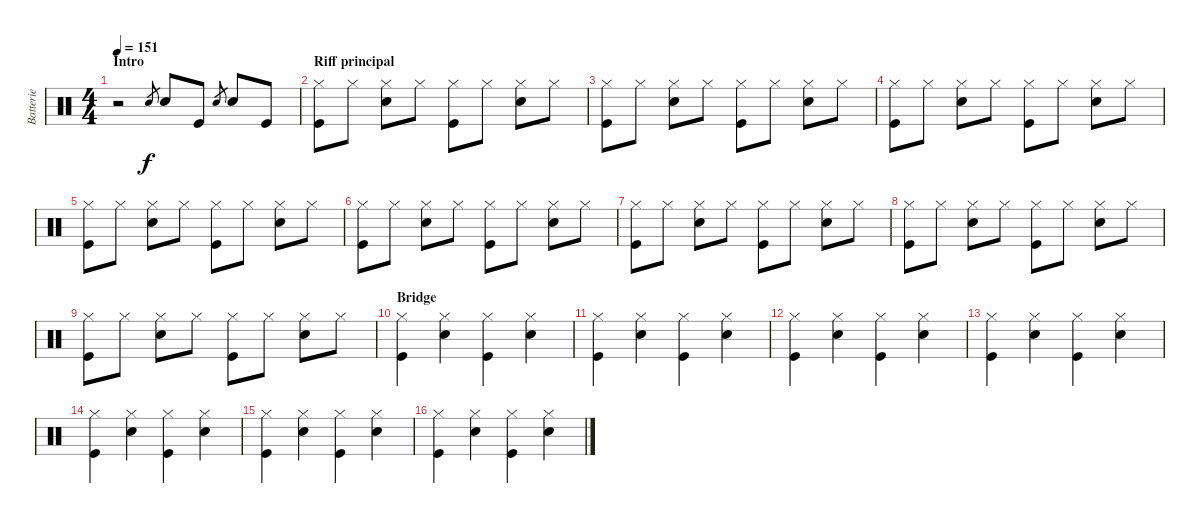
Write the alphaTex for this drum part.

\track ("Batterie" "Batterie") {instrument percussion}
\staff {score}
\articulation defaults
\ts (4 4)
\section ("" "Intro")
\tempo 151
\clef neutral
\ks c
r.2{dy f} "Electric Snare (hit)".8{gr} "Electric Snare (hit)".8 "Kick (hit)".8 "Electric Snare (hit)".8{gr} "Electric Snare (hit)".8 "Kick (hit)".8 |
\section ("" "Riff principal")
("Hi-Hat (closed)" "Kick (hit)").8 "Hi-Hat (closed)".8 ("Hi-Hat (closed)" "Electric Snare (hit)").8 "Hi-Hat (closed)".8 ("Hi-Hat (closed)" "Kick (hit)").8 "Hi-Hat (closed)".8 ("Hi-Hat (closed)" "Electric Snare (hit)").8 "Hi-Hat (closed)".8 |
("Hi-Hat (closed)" "Kick (hit)").8 "Hi-Hat (closed)".8 ("Hi-Hat (closed)" "Electric Snare (hit)").8 "Hi-Hat (closed)".8 ("Hi-Hat (closed)" "Kick (hit)").8 "Hi-Hat (closed)".8 ("Hi-Hat (closed)" "Electric Snare (hit)").8 "Hi-Hat (closed)".8 |
("Hi-Hat (closed)" "Kick (hit)").8 "Hi-Hat (closed)".8 ("Hi-Hat (closed)" "Electric Snare (hit)").8 "Hi-Hat (closed)".8 ("Hi-Hat (closed)" "Kick (hit)").8 "Hi-Hat (closed)".8 ("Hi-Hat (closed)" "Electric Snare (hit)").8 "Hi-Hat (closed)".8 |
("Hi-Hat (closed)" "Kick (hit)").8 "Hi-Hat (closed)".8 ("Hi-Hat (closed)" "Electric Snare (hit)").8 "Hi-Hat (closed)".8 ("Hi-Hat (closed)" "Kick (hit)").8 "Hi-Hat (closed)".8 ("Hi-Hat (closed)" "Electric Snare (hit)").8 "Hi-Hat (closed)".8 |
("Hi-Hat (closed)" "Kick (hit)").8 "Hi-Hat (closed)".8 ("Hi-Hat (closed)" "Electric Snare (hit)").8 "Hi-Hat (closed)".8 ("Hi-Hat (closed)" "Kick (hit)").8 "Hi-Hat (closed)".8 ("Hi-Hat (closed)" "Electric Snare (hit)").8 "Hi-Hat (closed)".8 |
("Hi-Hat (closed)" "Kick (hit)").8 "Hi-Hat (closed)".8 ("Hi-Hat (closed)" "Electric Snare (hit)").8 "Hi-Hat (closed)".8 ("Hi-Hat (closed)" "Kick (hit)").8 "Hi-Hat (closed)".8 ("Hi-Hat (closed)" "Electric Snare (hit)").8 "Hi-Hat (closed)".8 |
("Hi-Hat (closed)" "Kick (hit)").8 "Hi-Hat (closed)".8 ("Hi-Hat (closed)" "Electric Snare (hit)").8 "Hi-Hat (closed)".8 ("Hi-Hat (closed)" "Kick (hit)").8 "Hi-Hat (closed)".8 ("Hi-Hat (closed)" "Electric Snare (hit)").8 "Hi-Hat (closed)".8 |
("Hi-Hat (closed)" "Kick (hit)").8 "Hi-Hat (closed)".8 ("Hi-Hat (closed)" "Electric Snare (hit)").8 "Hi-Hat (closed)".8 ("Hi-Hat (closed)" "Kick (hit)").8 "Hi-Hat (closed)".8 ("Hi-Hat (closed)" "Electric Snare (hit)").8 "Hi-Hat (closed)".8 |
\section ("" "Bridge")
("Hi-Hat (closed)" "Kick (hit)").4 ("Hi-Hat (closed)" "Electric Snare (hit)").4 ("Hi-Hat (closed)" "Kick (hit)").4 ("Hi-Hat (closed)" "Electric Snare (hit)").4 |
("Hi-Hat (closed)" "Kick (hit)").4 ("Hi-Hat (closed)" "Electric Snare (hit)").4 ("Hi-Hat (closed)" "Kick (hit)").4 ("Hi-Hat (closed)" "Electric Snare (hit)").4 |
("Hi-Hat (closed)" "Kick (hit)").4 ("Hi-Hat (closed)" "Electric Snare (hit)").4 ("Hi-Hat (closed)" "Kick (hit)").4 ("Hi-Hat (closed)" "Electric Snare (hit)").4 |
("Hi-Hat (closed)" "Kick (hit)").4 ("Hi-Hat (closed)" "Electric Snare (hit)").4 ("Hi-Hat (closed)" "Kick (hit)").4 ("Hi-Hat (closed)" "Electric Snare (hit)").4 |
("Hi-Hat (closed)" "Kick (hit)").4 ("Hi-Hat (closed)" "Electric Snare (hit)").4 ("Hi-Hat (closed)" "Kick (hit)").4 ("Hi-Hat (closed)" "Electric Snare (hit)").4 |
("Hi-Hat (closed)" "Kick (hit)").4 ("Hi-Hat (closed)" "Electric Snare (hit)").4 ("Hi-Hat (closed)" "Kick (hit)").4 ("Hi-Hat (closed)" "Electric Snare (hit)").4 |
("Hi-Hat (closed)" "Kick (hit)").4 ("Hi-Hat (closed)" "Electric Snare (hit)").4 ("Hi-Hat (closed)" "Kick (hit)").4 ("Hi-Hat (closed)" "Electric Snare (hit)").4
